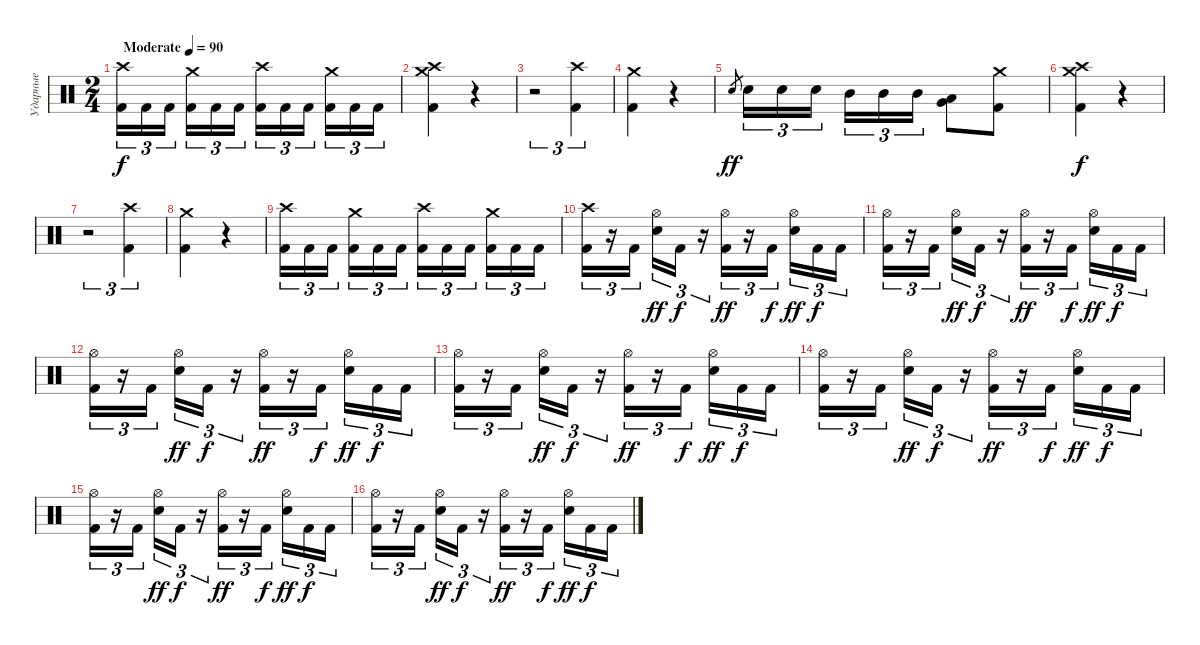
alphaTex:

\track ("Ударные" "Ударные") {instrument percussion}
\staff {score}
\articulation defaults
\ts (2 4)
\tempo (90 "Moderate")
\clef neutral
\ks c
("Crash high (hit)" "Kick (hit) 2").16{tu (3 2) dy f} "Kick (hit) 2".16{tu (3 2)} "Kick (hit) 2".16{tu (3 2) beam splitsecondary} ("Crash medium (hit)" "Kick (hit) 2").16{tu (3 2)} "Kick (hit) 2".16{tu (3 2)} "Kick (hit) 2".16{tu (3 2)} ("Crash high (hit)" "Kick (hit) 2").16{tu (3 2)} "Kick (hit) 2".16{tu (3 2)} "Kick (hit) 2".16{tu (3 2) beam splitsecondary} ("Crash medium (hit)" "Kick (hit) 2").16{tu (3 2)} "Kick (hit) 2".16{tu (3 2)} "Kick (hit) 2".16{tu (3 2)} |
("Crash medium (hit)" "Crash high (hit)" "Kick (hit) 2").4 r.4 |
r.2{tu (3 2)} ("Crash high (hit)" "Kick (hit) 2").4{tu (3 2)} |
("Crash medium (hit)" "Kick (hit) 2").4 r.4 |
"Electric Snare (hit)".8{gr dy ff} "Electric Snare (hit)".16{tu (3 2)} "Electric Snare (hit)".16{tu (3 2)} "Electric Snare (hit)".16{tu (3 2) beam splitsecondary} "Mid Tom (hit)".16{tu (3 2)} "Mid Tom (hit)".16{tu (3 2)} "Mid Tom (hit)".16{tu (3 2)} ("Low Tom (hit)" "Very Low Tom (hit)").8 ("Crash medium (hit)" "Kick (hit) 2").8 |
("Crash medium (hit)" "Crash high (hit)" "Kick (hit) 2").4{dy f} r.4 |
r.2{tu (3 2)} ("Crash high (hit)" "Kick (hit) 2").4{tu (3 2)} |
("Crash medium (hit)" "Kick (hit) 2").4 r.4 |
("Crash high (hit)" "Kick (hit) 2").16{tu (3 2)} "Kick (hit) 2".16{tu (3 2)} "Kick (hit) 2".16{tu (3 2) beam splitsecondary} ("Crash medium (hit)" "Kick (hit) 2").16{tu (3 2)} "Kick (hit) 2".16{tu (3 2)} "Kick (hit) 2".16{tu (3 2)} ("Crash high (hit)" "Kick (hit) 2").16{tu (3 2)} "Kick (hit) 2".16{tu (3 2)} "Kick (hit) 2".16{tu (3 2) beam splitsecondary} ("Crash medium (hit)" "Kick (hit) 2").16{tu (3 2)} "Kick (hit) 2".16{tu (3 2)} "Kick (hit) 2".16{tu (3 2)} |
("Crash high (hit)" "Kick (hit) 2").16{tu (3 2)} r.16{tu (3 2)} "Kick (hit) 2".16{tu (3 2) beam splitsecondary} ("Hi-Hat (open)" "Electric Snare (hit)").16{tu (3 2) dy ff} "Kick (hit) 2".16{tu (3 2) dy f} r.16{tu (3 2)} ("Hi-Hat (open)" "Kick (hit) 2").16{tu (3 2) dy ff} r.16{tu (3 2)} "Kick (hit) 2".16{tu (3 2) dy f beam splitsecondary} ("Hi-Hat (open)" "Electric Snare (hit)").16{tu (3 2) dy ff} "Kick (hit) 2".16{tu (3 2) dy f} "Kick (hit) 2".16{tu (3 2)} |
("Hi-Hat (open)" "Kick (hit) 2").16{tu (3 2)} r.16{tu (3 2)} "Kick (hit) 2".16{tu (3 2) beam splitsecondary} ("Hi-Hat (open)" "Electric Snare (hit)").16{tu (3 2) dy ff} "Kick (hit) 2".16{tu (3 2) dy f} r.16{tu (3 2)} ("Hi-Hat (open)" "Kick (hit) 2").16{tu (3 2) dy ff} r.16{tu (3 2)} "Kick (hit) 2".16{tu (3 2) dy f beam splitsecondary} ("Hi-Hat (open)" "Electric Snare (hit)").16{tu (3 2) dy ff} "Kick (hit) 2".16{tu (3 2) dy f} "Kick (hit) 2".16{tu (3 2)} |
("Hi-Hat (open)" "Kick (hit) 2").16{tu (3 2)} r.16{tu (3 2)} "Kick (hit) 2".16{tu (3 2) beam splitsecondary} ("Hi-Hat (open)" "Electric Snare (hit)").16{tu (3 2) dy ff} "Kick (hit) 2".16{tu (3 2) dy f} r.16{tu (3 2)} ("Hi-Hat (open)" "Kick (hit) 2").16{tu (3 2) dy ff} r.16{tu (3 2)} "Kick (hit) 2".16{tu (3 2) dy f beam splitsecondary} ("Hi-Hat (open)" "Electric Snare (hit)").16{tu (3 2) dy ff} "Kick (hit) 2".16{tu (3 2) dy f} "Kick (hit) 2".16{tu (3 2)} |
("Hi-Hat (open)" "Kick (hit) 2").16{tu (3 2)} r.16{tu (3 2)} "Kick (hit) 2".16{tu (3 2) beam splitsecondary} ("Hi-Hat (open)" "Electric Snare (hit)").16{tu (3 2) dy ff} "Kick (hit) 2".16{tu (3 2) dy f} r.16{tu (3 2)} ("Hi-Hat (open)" "Kick (hit) 2").16{tu (3 2) dy ff} r.16{tu (3 2)} "Kick (hit) 2".16{tu (3 2) dy f beam splitsecondary} ("Hi-Hat (open)" "Electric Snare (hit)").16{tu (3 2) dy ff} "Kick (hit) 2".16{tu (3 2) dy f} "Kick (hit) 2".16{tu (3 2)} |
("Hi-Hat (open)" "Kick (hit) 2").16{tu (3 2)} r.16{tu (3 2)} "Kick (hit) 2".16{tu (3 2) beam splitsecondary} ("Hi-Hat (open)" "Electric Snare (hit)").16{tu (3 2) dy ff} "Kick (hit) 2".16{tu (3 2) dy f} r.16{tu (3 2)} ("Hi-Hat (open)" "Kick (hit) 2").16{tu (3 2) dy ff} r.16{tu (3 2)} "Kick (hit) 2".16{tu (3 2) dy f beam splitsecondary} ("Hi-Hat (open)" "Electric Snare (hit)").16{tu (3 2) dy ff} "Kick (hit) 2".16{tu (3 2) dy f} "Kick (hit) 2".16{tu (3 2)} |
("Hi-Hat (open)" "Kick (hit) 2").16{tu (3 2)} r.16{tu (3 2)} "Kick (hit) 2".16{tu (3 2) beam splitsecondary} ("Hi-Hat (open)" "Electric Snare (hit)").16{tu (3 2) dy ff} "Kick (hit) 2".16{tu (3 2) dy f} r.16{tu (3 2)} ("Hi-Hat (open)" "Kick (hit) 2").16{tu (3 2) dy ff} r.16{tu (3 2)} "Kick (hit) 2".16{tu (3 2) dy f beam splitsecondary} ("Hi-Hat (open)" "Electric Snare (hit)").16{tu (3 2) dy ff} "Kick (hit) 2".16{tu (3 2) dy f} "Kick (hit) 2".16{tu (3 2)} |
("Hi-Hat (open)" "Kick (hit) 2").16{tu (3 2)} r.16{tu (3 2)} "Kick (hit) 2".16{tu (3 2) beam splitsecondary} ("Hi-Hat (open)" "Electric Snare (hit)").16{tu (3 2) dy ff} "Kick (hit) 2".16{tu (3 2) dy f} r.16{tu (3 2)} ("Hi-Hat (open)" "Kick (hit) 2").16{tu (3 2) dy ff} r.16{tu (3 2)} "Kick (hit) 2".16{tu (3 2) dy f beam splitsecondary} ("Hi-Hat (open)" "Electric Snare (hit)").16{tu (3 2) dy ff} "Kick (hit) 2".16{tu (3 2) dy f} "Kick (hit) 2".16{tu (3 2)}
